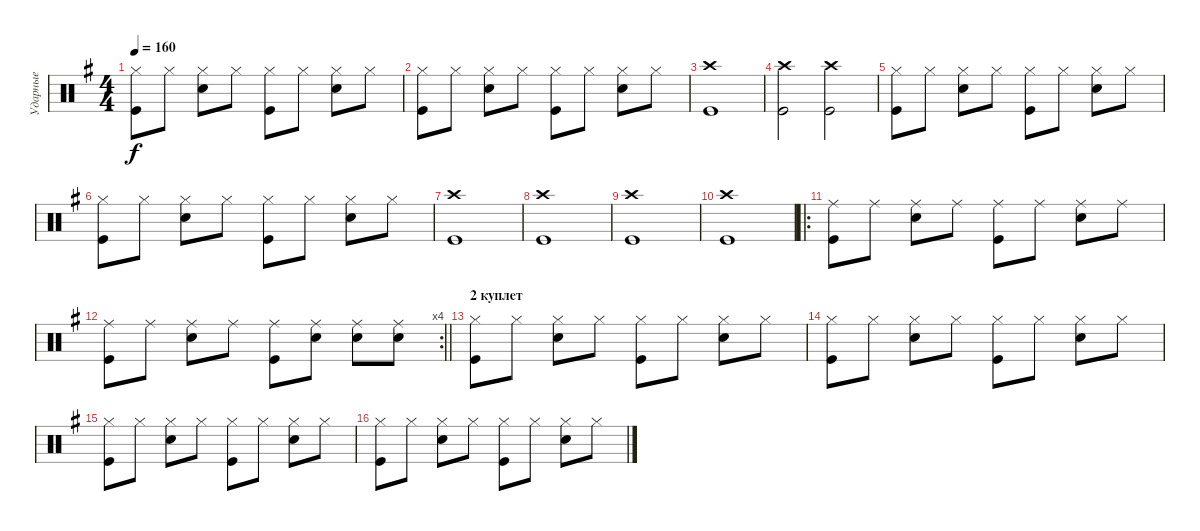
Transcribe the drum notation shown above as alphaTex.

\track ("Ударные" "Ударные") {instrument percussion}
\staff {score}
\articulation defaults
\ts (4 4)
\tempo 160
\clef neutral
\ks eminor
("Hi-Hat (closed)" "Kick (hit)").8{dy f} "Hi-Hat (closed)".8 ("Hi-Hat (closed)" "Electric Snare (hit)").8 "Hi-Hat (closed)".8 ("Hi-Hat (closed)" "Kick (hit)").8 "Hi-Hat (closed)".8 ("Hi-Hat (closed)" "Electric Snare (hit)").8 "Hi-Hat (closed)".8 |
("Hi-Hat (closed)" "Kick (hit)").8 "Hi-Hat (closed)".8 ("Hi-Hat (closed)" "Electric Snare (hit)").8 "Hi-Hat (closed)".8 ("Hi-Hat (closed)" "Kick (hit)").8 "Hi-Hat (closed)".8 ("Hi-Hat (closed)" "Electric Snare (hit)").8 "Hi-Hat (closed)".8 |
("Crash high (hit)" "Kick (hit)").1 |
("Crash high (hit)" "Kick (hit)").2 ("Crash high (hit)" "Kick (hit)").2 |
("Hi-Hat (closed)" "Kick (hit)").8 "Hi-Hat (closed)".8 ("Hi-Hat (closed)" "Electric Snare (hit)").8 "Hi-Hat (closed)".8 ("Hi-Hat (closed)" "Kick (hit)").8 "Hi-Hat (closed)".8 ("Hi-Hat (closed)" "Electric Snare (hit)").8 "Hi-Hat (closed)".8 |
("Hi-Hat (closed)" "Kick (hit)").8 "Hi-Hat (closed)".8 ("Hi-Hat (closed)" "Electric Snare (hit)").8 "Hi-Hat (closed)".8 ("Hi-Hat (closed)" "Kick (hit)").8 "Hi-Hat (closed)".8 ("Hi-Hat (closed)" "Electric Snare (hit)").8 "Hi-Hat (closed)".8 |
("Crash high (hit)" "Kick (hit)").1 |
("Crash high (hit)" "Kick (hit)").1 |
("Crash high (hit)" "Kick (hit)").1 |
("Crash high (hit)" "Kick (hit)").1 |
\ro
("Ride (middle)" "Kick (hit)").8 "Ride (middle)".8 ("Ride (middle)" "Electric Snare (hit)").8 "Ride (middle)".8 ("Ride (middle)" "Kick (hit)").8 "Ride (middle)".8 ("Ride (middle)" "Electric Snare (hit)").8 "Ride (middle)".8 |
\rc 4
\barLineRight lightlight
("Ride (middle)" "Kick (hit)").8 "Ride (middle)".8 ("Ride (middle)" "Electric Snare (hit)").8 "Ride (middle)".8 ("Ride (middle)" "Kick (hit)").8 ("Ride (middle)" "Electric Snare (hit)").8 ("Ride (middle)" "Electric Snare (hit)").8 ("Ride (middle)" "Electric Snare (hit)").8 |
\section ("" "2 куплет")
("Hi-Hat (closed)" "Kick (hit)").8 "Hi-Hat (closed)".8 ("Hi-Hat (closed)" "Electric Snare (hit)").8 "Hi-Hat (closed)".8 ("Hi-Hat (closed)" "Kick (hit)").8 "Hi-Hat (closed)".8 ("Hi-Hat (closed)" "Electric Snare (hit)").8 "Hi-Hat (closed)".8 |
("Hi-Hat (closed)" "Kick (hit)").8 "Hi-Hat (closed)".8 ("Hi-Hat (closed)" "Electric Snare (hit)").8 "Hi-Hat (closed)".8 ("Hi-Hat (closed)" "Kick (hit)").8 "Hi-Hat (closed)".8 ("Hi-Hat (closed)" "Electric Snare (hit)").8 "Hi-Hat (closed)".8 |
("Hi-Hat (closed)" "Kick (hit)").8 "Hi-Hat (closed)".8 ("Hi-Hat (closed)" "Electric Snare (hit)").8 "Hi-Hat (closed)".8 ("Hi-Hat (closed)" "Kick (hit)").8 "Hi-Hat (closed)".8 ("Hi-Hat (closed)" "Electric Snare (hit)").8 "Hi-Hat (closed)".8 |
("Hi-Hat (closed)" "Kick (hit)").8 "Hi-Hat (closed)".8 ("Hi-Hat (closed)" "Electric Snare (hit)").8 "Hi-Hat (closed)".8 ("Hi-Hat (closed)" "Kick (hit)").8 "Hi-Hat (closed)".8 ("Hi-Hat (closed)" "Electric Snare (hit)").8 "Hi-Hat (closed)".8
